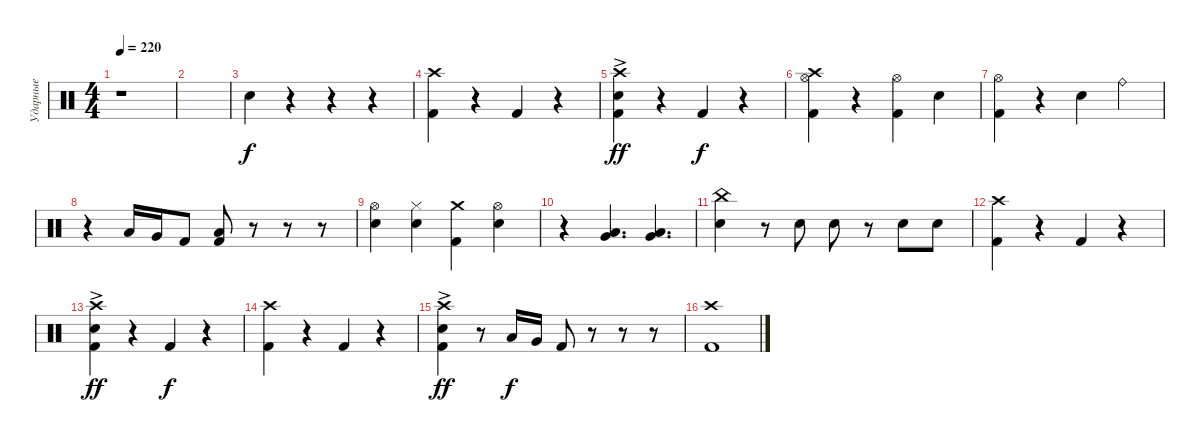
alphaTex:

\track ("Ударные" "Ударные") {instrument percussion}
\staff {score}
\articulation defaults
\ts (4 4)
\tempo 220
\clef neutral
\ks c
r.1{dy f} |
|
"Electric Snare (hit)".4 r.4 r.4 r.4 |
("Kick (hit) 2" "Crash high (hit)").4 r.4 "Kick (hit) 2".4 r.4 |
("Kick (hit) 2" "Electric Snare (hit)"{ac} "Crash high (hit)").4{dy ff} r.4 "Kick (hit) 2".4{dy f} r.4 |
("Kick (hit) 2" "Hi-Hat (open)" "Crash high (hit)").4 r.4 ("Kick (hit) 2" "Hi-Hat (open)").4 "Electric Snare (hit)".4 |
("Kick (hit) 2" "Hi-Hat (open)").4 r.4 "Electric Snare (hit)".4 "Ride (bell)".4 |
r.4 "Low Tom (hit)".16 "Very Low Tom (hit)".16 "Kick (hit) 2".8 ("Kick (hit) 2" "Low Floor Tom (hit)").8 r.8 r.8 r.8 |
("Electric Snare (hit)" "Hi-Hat (open)").4 ("Electric Snare (hit)" "Hi-Hat (closed)").4 ("Kick (hit) 2" "Crash medium (hit)").4 ("Electric Snare (hit)" "Hi-Hat (open)").4 |
r.4 ("Low Floor Tom (hit)" "Very Low Tom (hit)").4{d} ("Low Floor Tom (hit)" "Very Low Tom (hit)").4{d} |
("Electric Snare (hit)" "China (hit)").4 r.8 "Electric Snare (hit)".8 "Electric Snare (hit)".8 r.8 "Electric Snare (hit)".8 "Electric Snare (hit)".8 |
("Kick (hit) 2" "Crash high (hit)").4 r.4 "Kick (hit) 2".4 r.4 |
("Kick (hit) 2" "Electric Snare (hit)"{ac} "Crash high (hit)").4{dy ff} r.4 "Kick (hit) 2".4{dy f} r.4 |
("Kick (hit) 2" "Crash high (hit)").4 r.4 "Kick (hit) 2".4 r.4 |
("Kick (hit) 2" "Electric Snare (hit)"{ac} "Crash high (hit)").4{dy ff} r.8 "Low Tom (hit)".16{dy f} "Very Low Tom (hit)".16 "Kick (hit) 2".8 r.8 r.8 r.8 |
("Kick (hit) 2" "Crash high (hit)").1
